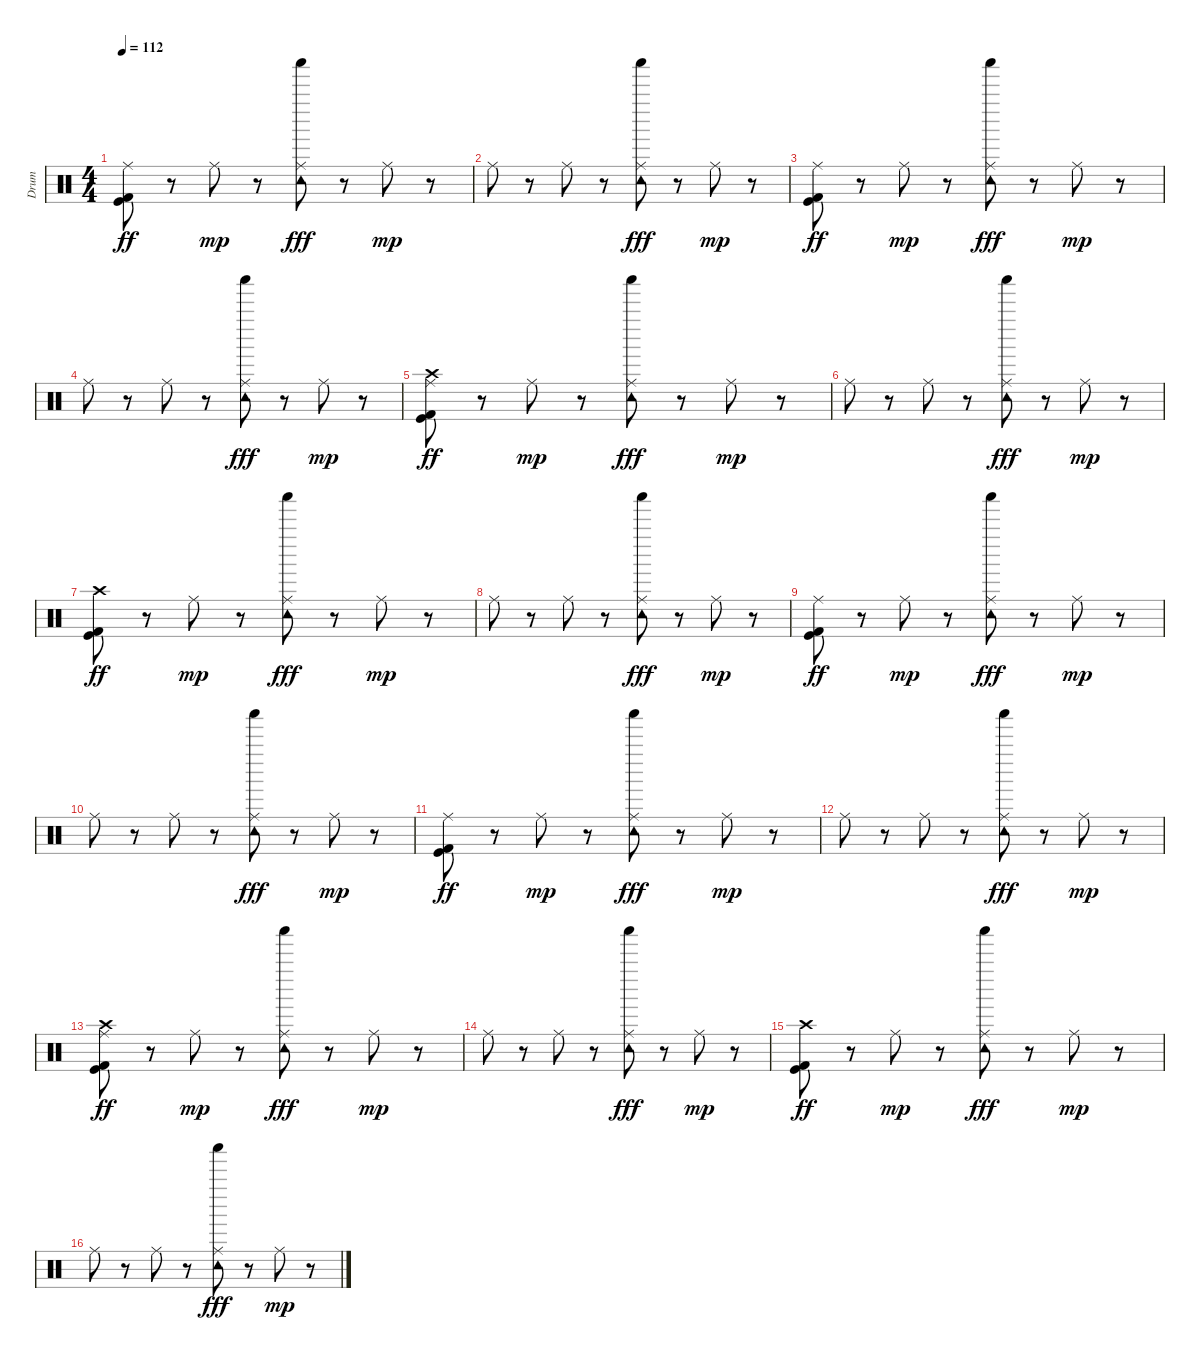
\track ("Drum" "Drum") {instrument percussion}
\staff {score}
\articulation defaults
\ts (4 4)
\tempo 112
\clef neutral
\ks c
("Ride (middle)" "Kick (hit)" "Kick (hit) 2").8{dy ff} r.8 "Ride (middle)".8{dy mp} r.8 ("Ride (middle)" "Shaker (hit)" "Tambourine (hit)").8{dy fff} r.8 "Ride (middle)".8{dy mp} r.8 |
"Ride (middle)".8 r.8 "Ride (middle)".8 r.8 ("Ride (middle)" "Shaker (hit)" "Tambourine (hit)").8{dy fff} r.8 "Ride (middle)".8{dy mp} r.8 |
("Ride (middle)" "Kick (hit)" "Kick (hit) 2").8{dy ff} r.8 "Ride (middle)".8{dy mp} r.8 ("Ride (middle)" "Shaker (hit)" "Tambourine (hit)").8{dy fff} r.8 "Ride (middle)".8{dy mp} r.8 |
"Ride (middle)".8 r.8 "Ride (middle)".8 r.8 ("Ride (middle)" "Shaker (hit)" "Tambourine (hit)").8{dy fff} r.8 "Ride (middle)".8{dy mp} r.8 |
("Ride (middle)" "Crash high (hit)" "Kick (hit)" "Kick (hit) 2").8{dy ff} r.8 "Ride (middle)".8{dy mp} r.8 ("Ride (middle)" "Shaker (hit)" "Tambourine (hit)").8{dy fff} r.8 "Ride (middle)".8{dy mp} r.8 |
"Ride (middle)".8 r.8 "Ride (middle)".8 r.8 ("Ride (middle)" "Shaker (hit)" "Tambourine (hit)").8{dy fff} r.8 "Ride (middle)".8{dy mp} r.8 |
("Crash high (hit)" "Kick (hit)" "Kick (hit) 2").8{dy ff} r.8 "Ride (middle)".8{dy mp} r.8 ("Ride (middle)" "Shaker (hit)" "Tambourine (hit)").8{dy fff} r.8 "Ride (middle)".8{dy mp} r.8 |
"Ride (middle)".8 r.8 "Ride (middle)".8 r.8 ("Ride (middle)" "Shaker (hit)" "Tambourine (hit)").8{dy fff} r.8 "Ride (middle)".8{dy mp} r.8 |
("Ride (middle)" "Kick (hit)" "Kick (hit) 2").8{dy ff} r.8 "Ride (middle)".8{dy mp} r.8 ("Ride (middle)" "Shaker (hit)" "Tambourine (hit)").8{dy fff} r.8 "Ride (middle)".8{dy mp} r.8 |
"Ride (middle)".8 r.8 "Ride (middle)".8 r.8 ("Ride (middle)" "Shaker (hit)" "Tambourine (hit)").8{dy fff} r.8 "Ride (middle)".8{dy mp} r.8 |
("Ride (middle)" "Kick (hit)" "Kick (hit) 2").8{dy ff} r.8 "Ride (middle)".8{dy mp} r.8 ("Ride (middle)" "Shaker (hit)" "Tambourine (hit)").8{dy fff} r.8 "Ride (middle)".8{dy mp} r.8 |
"Ride (middle)".8 r.8 "Ride (middle)".8 r.8 ("Ride (middle)" "Shaker (hit)" "Tambourine (hit)").8{dy fff} r.8 "Ride (middle)".8{dy mp} r.8 |
("Ride (middle)" "Crash high (hit)" "Kick (hit)" "Kick (hit) 2").8{dy ff} r.8 "Ride (middle)".8{dy mp} r.8 ("Ride (middle)" "Shaker (hit)" "Tambourine (hit)").8{dy fff} r.8 "Ride (middle)".8{dy mp} r.8 |
"Ride (middle)".8 r.8 "Ride (middle)".8 r.8 ("Ride (middle)" "Shaker (hit)" "Tambourine (hit)").8{dy fff} r.8 "Ride (middle)".8{dy mp} r.8 |
("Crash high (hit)" "Kick (hit)" "Kick (hit) 2").8{dy ff} r.8 "Ride (middle)".8{dy mp} r.8 ("Ride (middle)" "Shaker (hit)" "Tambourine (hit)").8{dy fff} r.8 "Ride (middle)".8{dy mp} r.8 |
"Ride (middle)".8 r.8 "Ride (middle)".8 r.8 ("Ride (middle)" "Shaker (hit)" "Tambourine (hit)").8{dy fff} r.8 "Ride (middle)".8{dy mp} r.8
